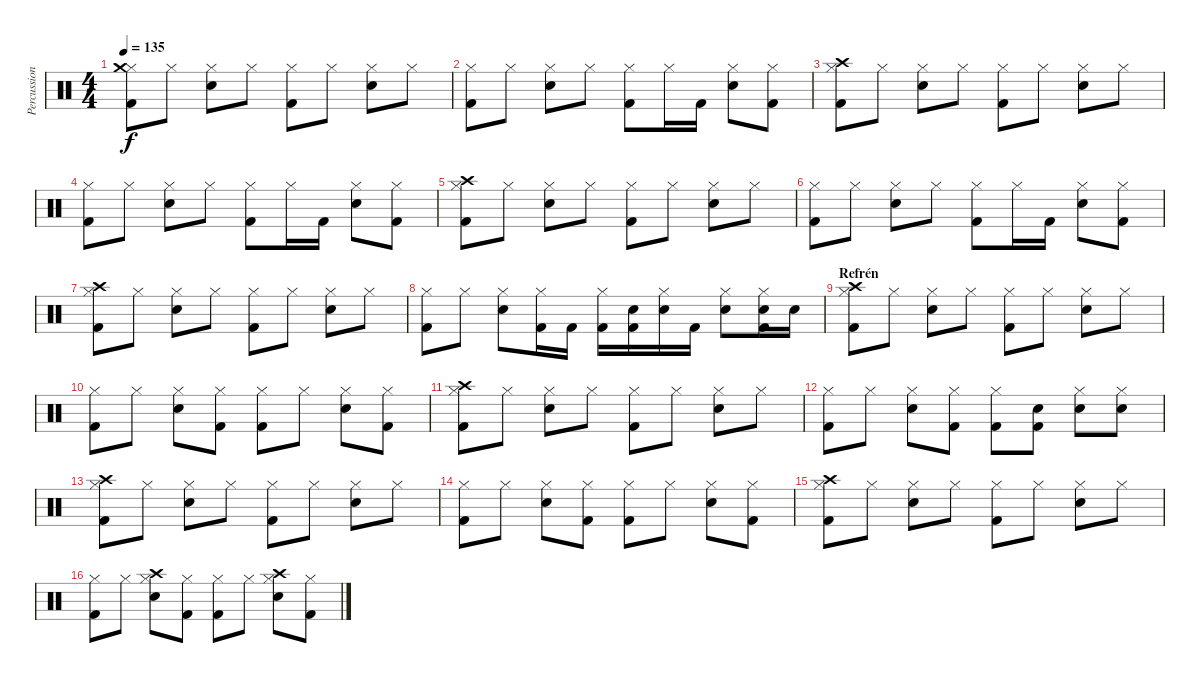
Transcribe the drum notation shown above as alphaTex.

\track ("Percussion" "Percussion") {instrument percussion}
\staff {score}
\articulation defaults
\ts (4 4)
\tempo 135
\clef neutral
\ks c
("Hi-Hat (closed)" "Kick (hit) 2" "Crash medium (hit)").8{dy f} "Hi-Hat (closed)".8 ("Hi-Hat (closed)" "Electric Snare (hit)").8 "Hi-Hat (closed)".8 ("Hi-Hat (closed)" "Kick (hit) 2").8 "Hi-Hat (closed)".8 ("Hi-Hat (closed)" "Electric Snare (hit)").8 "Hi-Hat (closed)".8 |
("Hi-Hat (closed)" "Kick (hit) 2").8 "Hi-Hat (closed)".8 ("Hi-Hat (closed)" "Electric Snare (hit)").8 "Hi-Hat (closed)".8 ("Hi-Hat (closed)" "Kick (hit) 2").8 "Hi-Hat (closed)".16 "Kick (hit) 2".16 ("Hi-Hat (closed)" "Electric Snare (hit)").8 ("Hi-Hat (closed)" "Kick (hit) 2").8 |
("Hi-Hat (closed)" "Kick (hit) 2" "Crash high (hit)").8 "Hi-Hat (closed)".8 ("Hi-Hat (closed)" "Electric Snare (hit)").8 "Hi-Hat (closed)".8 ("Hi-Hat (closed)" "Kick (hit) 2").8 "Hi-Hat (closed)".8 ("Hi-Hat (closed)" "Electric Snare (hit)").8 "Hi-Hat (closed)".8 |
("Hi-Hat (closed)" "Kick (hit) 2").8 "Hi-Hat (closed)".8 ("Hi-Hat (closed)" "Electric Snare (hit)").8 "Hi-Hat (closed)".8 ("Hi-Hat (closed)" "Kick (hit) 2").8 "Hi-Hat (closed)".16 "Kick (hit) 2".16 ("Hi-Hat (closed)" "Electric Snare (hit)").8 ("Hi-Hat (closed)" "Kick (hit) 2").8 |
("Hi-Hat (closed)" "Kick (hit) 2" "Crash high (hit)").8 "Hi-Hat (closed)".8 ("Hi-Hat (closed)" "Electric Snare (hit)").8 "Hi-Hat (closed)".8 ("Hi-Hat (closed)" "Kick (hit) 2").8 "Hi-Hat (closed)".8 ("Hi-Hat (closed)" "Electric Snare (hit)").8 "Hi-Hat (closed)".8 |
("Hi-Hat (closed)" "Kick (hit) 2").8 "Hi-Hat (closed)".8 ("Hi-Hat (closed)" "Electric Snare (hit)").8 "Hi-Hat (closed)".8 ("Hi-Hat (closed)" "Kick (hit) 2").8 "Hi-Hat (closed)".16 "Kick (hit) 2".16 ("Hi-Hat (closed)" "Electric Snare (hit)").8 ("Hi-Hat (closed)" "Kick (hit) 2").8 |
("Hi-Hat (closed)" "Kick (hit) 2" "Crash high (hit)").8 "Hi-Hat (closed)".8 ("Hi-Hat (closed)" "Electric Snare (hit)").8 "Hi-Hat (closed)".8 ("Hi-Hat (closed)" "Kick (hit) 2").8 "Hi-Hat (closed)".8 ("Hi-Hat (closed)" "Electric Snare (hit)").8 "Hi-Hat (closed)".8 |
("Hi-Hat (closed)" "Kick (hit) 2").8 "Hi-Hat (closed)".8 ("Hi-Hat (closed)" "Electric Snare (hit)").8 ("Hi-Hat (closed)" "Kick (hit) 2").16 "Kick (hit) 2".16 ("Hi-Hat (closed)" "Kick (hit) 2").16 ("Kick (hit) 2" "Electric Snare (hit)").16 ("Hi-Hat (closed)" "Electric Snare (hit)").16 "Kick (hit) 2".16 ("Hi-Hat (closed)" "Electric Snare (hit)").8 ("Hi-Hat (closed)" "Kick (hit) 2" "Electric Snare (hit)").16 "Electric Snare (hit)".16 |
\section ("" "Refrén")
("Hi-Hat (closed)" "Kick (hit) 2" "Crash high (hit)").8 "Hi-Hat (closed)".8 ("Hi-Hat (closed)" "Electric Snare (hit)").8 "Hi-Hat (closed)".8 ("Hi-Hat (closed)" "Kick (hit) 2").8 "Hi-Hat (closed)".8 ("Hi-Hat (closed)" "Electric Snare (hit)").8 "Hi-Hat (closed)".8 |
("Hi-Hat (closed)" "Kick (hit) 2").8 "Hi-Hat (closed)".8 ("Hi-Hat (closed)" "Electric Snare (hit)").8 ("Hi-Hat (closed)" "Kick (hit) 2").8 ("Hi-Hat (closed)" "Kick (hit) 2").8 "Hi-Hat (closed)".8 ("Hi-Hat (closed)" "Electric Snare (hit)").8 ("Hi-Hat (closed)" "Kick (hit) 2").8 |
("Hi-Hat (closed)" "Kick (hit) 2" "Crash high (hit)").8 "Hi-Hat (closed)".8 ("Hi-Hat (closed)" "Electric Snare (hit)").8 "Hi-Hat (closed)".8 ("Hi-Hat (closed)" "Kick (hit) 2").8 "Hi-Hat (closed)".8 ("Hi-Hat (closed)" "Electric Snare (hit)").8 "Hi-Hat (closed)".8 |
("Hi-Hat (closed)" "Kick (hit) 2").8 "Hi-Hat (closed)".8 ("Hi-Hat (closed)" "Electric Snare (hit)").8 ("Hi-Hat (closed)" "Kick (hit) 2").8 ("Hi-Hat (closed)" "Kick (hit) 2").8 ("Kick (hit) 2" "Electric Snare (hit)").8 ("Hi-Hat (closed)" "Electric Snare (hit)").8 ("Hi-Hat (closed)" "Electric Snare (hit)").8 |
("Hi-Hat (closed)" "Kick (hit) 2" "Crash high (hit)").8 "Hi-Hat (closed)".8 ("Hi-Hat (closed)" "Electric Snare (hit)").8 "Hi-Hat (closed)".8 ("Hi-Hat (closed)" "Kick (hit) 2").8 "Hi-Hat (closed)".8 ("Hi-Hat (closed)" "Electric Snare (hit)").8 "Hi-Hat (closed)".8 |
("Hi-Hat (closed)" "Kick (hit) 2").8 "Hi-Hat (closed)".8 ("Hi-Hat (closed)" "Electric Snare (hit)").8 ("Hi-Hat (closed)" "Kick (hit) 2").8 ("Hi-Hat (closed)" "Kick (hit) 2").8 "Hi-Hat (closed)".8 ("Hi-Hat (closed)" "Electric Snare (hit)").8 ("Hi-Hat (closed)" "Kick (hit) 2").8 |
("Hi-Hat (closed)" "Kick (hit) 2" "Crash high (hit)").8 "Hi-Hat (closed)".8 ("Hi-Hat (closed)" "Electric Snare (hit)").8 "Hi-Hat (closed)".8 ("Hi-Hat (closed)" "Kick (hit) 2").8 "Hi-Hat (closed)".8 ("Hi-Hat (closed)" "Electric Snare (hit)").8 "Hi-Hat (closed)".8 |
("Hi-Hat (closed)" "Kick (hit) 2").8 "Hi-Hat (closed)".8 ("Hi-Hat (closed)" "Crash high (hit)" "Electric Snare (hit)").8 ("Hi-Hat (closed)" "Kick (hit) 2").8 ("Hi-Hat (closed)" "Kick (hit) 2").8 "Hi-Hat (closed)".8 ("Hi-Hat (closed)" "Crash high (hit)" "Electric Snare (hit)").8 ("Hi-Hat (closed)" "Kick (hit) 2").8
